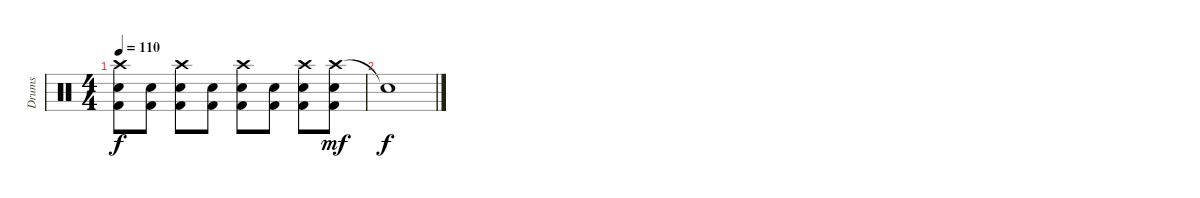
\track ("Drums" "Drums") {instrument percussion}
\staff {score}
\articulation defaults
\ts (4 4)
\tempo 110
\clef neutral
\ks c
("Crash high (hit)" "Electric Snare (hit)" "Kick (hit) 2").8{dy f} ("Electric Snare (hit)" "Kick (hit) 2").8 ("Crash high (hit)" "Electric Snare (hit)" "Kick (hit) 2").8 ("Electric Snare (hit)" "Kick (hit) 2").8 ("Crash high (hit)" "Electric Snare (hit)" "Kick (hit) 2").8 ("Electric Snare (hit)" "Kick (hit) 2").8 ("Crash high (hit)" "Electric Snare (hit)" "Kick (hit) 2").8 ("Crash high (hit)" "Electric Snare (hit)" "Kick (hit) 2").8{dy mf} |
"Snare (hit)"{t}.1{dy f}
